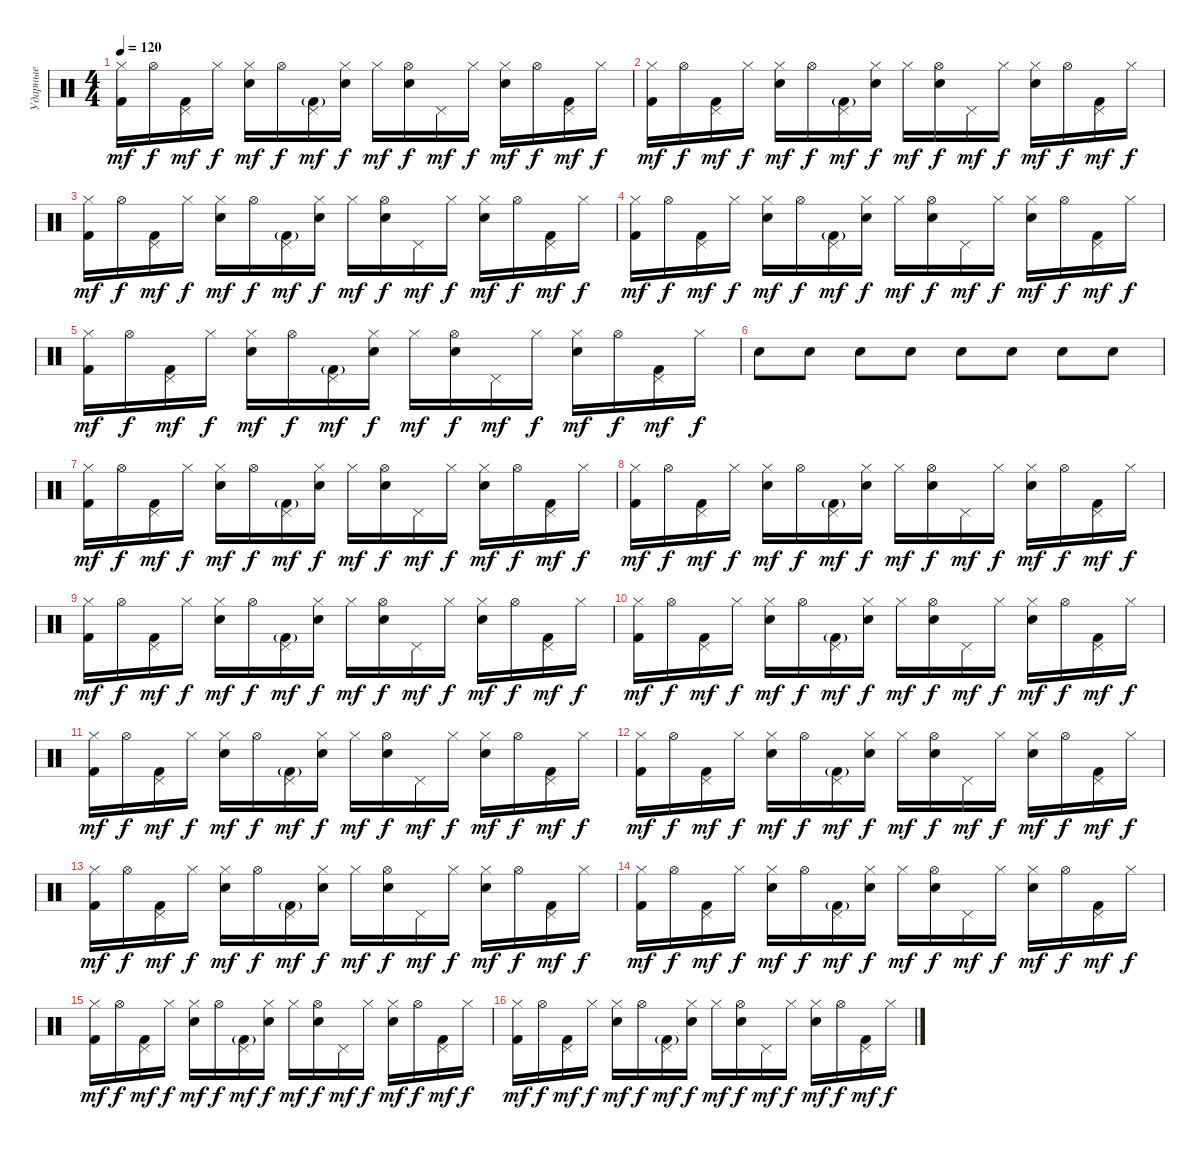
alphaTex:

\track ("Ударные" "Ударные") {instrument percussion}
\staff {score}
\articulation defaults
\ts (4 4)
\tempo 120
\clef neutral
\ks c
("Kick (hit) 2" "Hi-Hat (closed)").16{dy mf} "Hi-Hat (open)".16{dy f} ("Kick (hit) 2" "Pedal Hi-Hat (hit)").16{dy mf} "Hi-Hat (closed)".16{dy f} ("Snare (hit) 2" "Hi-Hat (closed)").16{dy mf} "Hi-Hat (open)".16{dy f} ("Kick (hit) 2"{g} "Pedal Hi-Hat (hit)").16{dy mf} ("Snare (hit) 2" "Hi-Hat (closed)").16{dy f} "Hi-Hat (closed)".16{dy mf} ("Snare (hit) 2" "Hi-Hat (open)").16{dy f} "Pedal Hi-Hat (hit)".16{dy mf} "Hi-Hat (closed)".16{dy f} ("Snare (hit) 2" "Hi-Hat (closed)").16{dy mf} "Hi-Hat (open)".16{dy f} ("Kick (hit) 2" "Pedal Hi-Hat (hit)").16{dy mf} "Hi-Hat (closed)".16{dy f} |
("Kick (hit) 2" "Hi-Hat (closed)").16{dy mf} "Hi-Hat (open)".16{dy f} ("Kick (hit) 2" "Pedal Hi-Hat (hit)").16{dy mf} "Hi-Hat (closed)".16{dy f} ("Snare (hit) 2" "Hi-Hat (closed)").16{dy mf} "Hi-Hat (open)".16{dy f} ("Kick (hit) 2"{g} "Pedal Hi-Hat (hit)").16{dy mf} ("Snare (hit) 2" "Hi-Hat (closed)").16{dy f} "Hi-Hat (closed)".16{dy mf} ("Snare (hit) 2" "Hi-Hat (open)").16{dy f} "Pedal Hi-Hat (hit)".16{dy mf} "Hi-Hat (closed)".16{dy f} ("Snare (hit) 2" "Hi-Hat (closed)").16{dy mf} "Hi-Hat (open)".16{dy f} ("Kick (hit) 2" "Pedal Hi-Hat (hit)").16{dy mf} "Hi-Hat (closed)".16{dy f} |
("Kick (hit) 2" "Hi-Hat (closed)").16{dy mf} "Hi-Hat (open)".16{dy f} ("Kick (hit) 2" "Pedal Hi-Hat (hit)").16{dy mf} "Hi-Hat (closed)".16{dy f} ("Snare (hit) 2" "Hi-Hat (closed)").16{dy mf} "Hi-Hat (open)".16{dy f} ("Kick (hit) 2"{g} "Pedal Hi-Hat (hit)").16{dy mf} ("Snare (hit) 2" "Hi-Hat (closed)").16{dy f} "Hi-Hat (closed)".16{dy mf} ("Snare (hit) 2" "Hi-Hat (open)").16{dy f} "Pedal Hi-Hat (hit)".16{dy mf} "Hi-Hat (closed)".16{dy f} ("Snare (hit) 2" "Hi-Hat (closed)").16{dy mf} "Hi-Hat (open)".16{dy f} ("Kick (hit) 2" "Pedal Hi-Hat (hit)").16{dy mf} "Hi-Hat (closed)".16{dy f} |
("Kick (hit) 2" "Hi-Hat (closed)").16{dy mf} "Hi-Hat (open)".16{dy f} ("Kick (hit) 2" "Pedal Hi-Hat (hit)").16{dy mf} "Hi-Hat (closed)".16{dy f} ("Snare (hit) 2" "Hi-Hat (closed)").16{dy mf} "Hi-Hat (open)".16{dy f} ("Kick (hit) 2"{g} "Pedal Hi-Hat (hit)").16{dy mf} ("Snare (hit) 2" "Hi-Hat (closed)").16{dy f} "Hi-Hat (closed)".16{dy mf} ("Snare (hit) 2" "Hi-Hat (open)").16{dy f} "Pedal Hi-Hat (hit)".16{dy mf} "Hi-Hat (closed)".16{dy f} ("Snare (hit) 2" "Hi-Hat (closed)").16{dy mf} "Hi-Hat (open)".16{dy f} ("Kick (hit) 2" "Pedal Hi-Hat (hit)").16{dy mf} "Hi-Hat (closed)".16{dy f} |
("Kick (hit) 2" "Hi-Hat (closed)").16{dy mf} "Hi-Hat (open)".16{dy f} ("Kick (hit) 2" "Pedal Hi-Hat (hit)").16{dy mf} "Hi-Hat (closed)".16{dy f} ("Snare (hit) 2" "Hi-Hat (closed)").16{dy mf} "Hi-Hat (open)".16{dy f} ("Kick (hit) 2"{g} "Pedal Hi-Hat (hit)").16{dy mf} ("Snare (hit) 2" "Hi-Hat (closed)").16{dy f} "Hi-Hat (closed)".16{dy mf} ("Snare (hit) 2" "Hi-Hat (open)").16{dy f} "Pedal Hi-Hat (hit)".16{dy mf} "Hi-Hat (closed)".16{dy f} ("Snare (hit) 2" "Hi-Hat (closed)").16{dy mf} "Hi-Hat (open)".16{dy f} ("Kick (hit) 2" "Pedal Hi-Hat (hit)").16{dy mf} "Hi-Hat (closed)".16{dy f} |
"Snare (hit) 2".8 "Snare (hit) 2".8 "Snare (hit) 2".8 "Snare (hit) 2".8 "Snare (hit) 2".8 "Snare (hit) 2".8 "Snare (hit) 2".8 "Snare (hit) 2".8 |
("Kick (hit) 2" "Hi-Hat (closed)").16{dy mf} "Hi-Hat (open)".16{dy f} ("Kick (hit) 2" "Pedal Hi-Hat (hit)").16{dy mf} "Hi-Hat (closed)".16{dy f} ("Snare (hit) 2" "Hi-Hat (closed)").16{dy mf} "Hi-Hat (open)".16{dy f} ("Kick (hit) 2"{g} "Pedal Hi-Hat (hit)").16{dy mf} ("Snare (hit) 2" "Hi-Hat (closed)").16{dy f} "Hi-Hat (closed)".16{dy mf} ("Snare (hit) 2" "Hi-Hat (open)").16{dy f} "Pedal Hi-Hat (hit)".16{dy mf} "Hi-Hat (closed)".16{dy f} ("Snare (hit) 2" "Hi-Hat (closed)").16{dy mf} "Hi-Hat (open)".16{dy f} ("Kick (hit) 2" "Pedal Hi-Hat (hit)").16{dy mf} "Hi-Hat (closed)".16{dy f} |
("Kick (hit) 2" "Hi-Hat (closed)").16{dy mf} "Hi-Hat (open)".16{dy f} ("Kick (hit) 2" "Pedal Hi-Hat (hit)").16{dy mf} "Hi-Hat (closed)".16{dy f} ("Snare (hit) 2" "Hi-Hat (closed)").16{dy mf} "Hi-Hat (open)".16{dy f} ("Kick (hit) 2"{g} "Pedal Hi-Hat (hit)").16{dy mf} ("Snare (hit) 2" "Hi-Hat (closed)").16{dy f} "Hi-Hat (closed)".16{dy mf} ("Snare (hit) 2" "Hi-Hat (open)").16{dy f} "Pedal Hi-Hat (hit)".16{dy mf} "Hi-Hat (closed)".16{dy f} ("Snare (hit) 2" "Hi-Hat (closed)").16{dy mf} "Hi-Hat (open)".16{dy f} ("Kick (hit) 2" "Pedal Hi-Hat (hit)").16{dy mf} "Hi-Hat (closed)".16{dy f} |
("Kick (hit) 2" "Hi-Hat (closed)").16{dy mf} "Hi-Hat (open)".16{dy f} ("Kick (hit) 2" "Pedal Hi-Hat (hit)").16{dy mf} "Hi-Hat (closed)".16{dy f} ("Snare (hit) 2" "Hi-Hat (closed)").16{dy mf} "Hi-Hat (open)".16{dy f} ("Kick (hit) 2"{g} "Pedal Hi-Hat (hit)").16{dy mf} ("Snare (hit) 2" "Hi-Hat (closed)").16{dy f} "Hi-Hat (closed)".16{dy mf} ("Snare (hit) 2" "Hi-Hat (open)").16{dy f} "Pedal Hi-Hat (hit)".16{dy mf} "Hi-Hat (closed)".16{dy f} ("Snare (hit) 2" "Hi-Hat (closed)").16{dy mf} "Hi-Hat (open)".16{dy f} ("Kick (hit) 2" "Pedal Hi-Hat (hit)").16{dy mf} "Hi-Hat (closed)".16{dy f} |
("Kick (hit) 2" "Hi-Hat (closed)").16{dy mf} "Hi-Hat (open)".16{dy f} ("Kick (hit) 2" "Pedal Hi-Hat (hit)").16{dy mf} "Hi-Hat (closed)".16{dy f} ("Snare (hit) 2" "Hi-Hat (closed)").16{dy mf} "Hi-Hat (open)".16{dy f} ("Kick (hit) 2"{g} "Pedal Hi-Hat (hit)").16{dy mf} ("Snare (hit) 2" "Hi-Hat (closed)").16{dy f} "Hi-Hat (closed)".16{dy mf} ("Snare (hit) 2" "Hi-Hat (open)").16{dy f} "Pedal Hi-Hat (hit)".16{dy mf} "Hi-Hat (closed)".16{dy f} ("Snare (hit) 2" "Hi-Hat (closed)").16{dy mf} "Hi-Hat (open)".16{dy f} ("Kick (hit) 2" "Pedal Hi-Hat (hit)").16{dy mf} "Hi-Hat (closed)".16{dy f} |
("Kick (hit) 2" "Hi-Hat (closed)").16{dy mf} "Hi-Hat (open)".16{dy f} ("Kick (hit) 2" "Pedal Hi-Hat (hit)").16{dy mf} "Hi-Hat (closed)".16{dy f} ("Snare (hit) 2" "Hi-Hat (closed)").16{dy mf} "Hi-Hat (open)".16{dy f} ("Kick (hit) 2"{g} "Pedal Hi-Hat (hit)").16{dy mf} ("Snare (hit) 2" "Hi-Hat (closed)").16{dy f} "Hi-Hat (closed)".16{dy mf} ("Snare (hit) 2" "Hi-Hat (open)").16{dy f} "Pedal Hi-Hat (hit)".16{dy mf} "Hi-Hat (closed)".16{dy f} ("Snare (hit) 2" "Hi-Hat (closed)").16{dy mf} "Hi-Hat (open)".16{dy f} ("Kick (hit) 2" "Pedal Hi-Hat (hit)").16{dy mf} "Hi-Hat (closed)".16{dy f} |
("Kick (hit) 2" "Hi-Hat (closed)").16{dy mf} "Hi-Hat (open)".16{dy f} ("Kick (hit) 2" "Pedal Hi-Hat (hit)").16{dy mf} "Hi-Hat (closed)".16{dy f} ("Snare (hit) 2" "Hi-Hat (closed)").16{dy mf} "Hi-Hat (open)".16{dy f} ("Kick (hit) 2"{g} "Pedal Hi-Hat (hit)").16{dy mf} ("Snare (hit) 2" "Hi-Hat (closed)").16{dy f} "Hi-Hat (closed)".16{dy mf} ("Snare (hit) 2" "Hi-Hat (open)").16{dy f} "Pedal Hi-Hat (hit)".16{dy mf} "Hi-Hat (closed)".16{dy f} ("Snare (hit) 2" "Hi-Hat (closed)").16{dy mf} "Hi-Hat (open)".16{dy f} ("Kick (hit) 2" "Pedal Hi-Hat (hit)").16{dy mf} "Hi-Hat (closed)".16{dy f} |
("Kick (hit) 2" "Hi-Hat (closed)").16{dy mf} "Hi-Hat (open)".16{dy f} ("Kick (hit) 2" "Pedal Hi-Hat (hit)").16{dy mf} "Hi-Hat (closed)".16{dy f} ("Snare (hit) 2" "Hi-Hat (closed)").16{dy mf} "Hi-Hat (open)".16{dy f} ("Kick (hit) 2"{g} "Pedal Hi-Hat (hit)").16{dy mf} ("Snare (hit) 2" "Hi-Hat (closed)").16{dy f} "Hi-Hat (closed)".16{dy mf} ("Snare (hit) 2" "Hi-Hat (open)").16{dy f} "Pedal Hi-Hat (hit)".16{dy mf} "Hi-Hat (closed)".16{dy f} ("Snare (hit) 2" "Hi-Hat (closed)").16{dy mf} "Hi-Hat (open)".16{dy f} ("Kick (hit) 2" "Pedal Hi-Hat (hit)").16{dy mf} "Hi-Hat (closed)".16{dy f} |
("Kick (hit) 2" "Hi-Hat (closed)").16{dy mf} "Hi-Hat (open)".16{dy f} ("Kick (hit) 2" "Pedal Hi-Hat (hit)").16{dy mf} "Hi-Hat (closed)".16{dy f} ("Snare (hit) 2" "Hi-Hat (closed)").16{dy mf} "Hi-Hat (open)".16{dy f} ("Kick (hit) 2"{g} "Pedal Hi-Hat (hit)").16{dy mf} ("Snare (hit) 2" "Hi-Hat (closed)").16{dy f} "Hi-Hat (closed)".16{dy mf} ("Snare (hit) 2" "Hi-Hat (open)").16{dy f} "Pedal Hi-Hat (hit)".16{dy mf} "Hi-Hat (closed)".16{dy f} ("Snare (hit) 2" "Hi-Hat (closed)").16{dy mf} "Hi-Hat (open)".16{dy f} ("Kick (hit) 2" "Pedal Hi-Hat (hit)").16{dy mf} "Hi-Hat (closed)".16{dy f} |
("Kick (hit) 2" "Hi-Hat (closed)").16{dy mf} "Hi-Hat (open)".16{dy f} ("Kick (hit) 2" "Pedal Hi-Hat (hit)").16{dy mf} "Hi-Hat (closed)".16{dy f} ("Snare (hit) 2" "Hi-Hat (closed)").16{dy mf} "Hi-Hat (open)".16{dy f} ("Kick (hit) 2"{g} "Pedal Hi-Hat (hit)").16{dy mf} ("Snare (hit) 2" "Hi-Hat (closed)").16{dy f} "Hi-Hat (closed)".16{dy mf} ("Snare (hit) 2" "Hi-Hat (open)").16{dy f} "Pedal Hi-Hat (hit)".16{dy mf} "Hi-Hat (closed)".16{dy f} ("Snare (hit) 2" "Hi-Hat (closed)").16{dy mf} "Hi-Hat (open)".16{dy f} ("Kick (hit) 2" "Pedal Hi-Hat (hit)").16{dy mf} "Hi-Hat (closed)".16{dy f} |
("Kick (hit) 2" "Hi-Hat (closed)").16{dy mf} "Hi-Hat (open)".16{dy f} ("Kick (hit) 2" "Pedal Hi-Hat (hit)").16{dy mf} "Hi-Hat (closed)".16{dy f} ("Snare (hit) 2" "Hi-Hat (closed)").16{dy mf} "Hi-Hat (open)".16{dy f} ("Kick (hit) 2"{g} "Pedal Hi-Hat (hit)").16{dy mf} ("Snare (hit) 2" "Hi-Hat (closed)").16{dy f} "Hi-Hat (closed)".16{dy mf} ("Snare (hit) 2" "Hi-Hat (open)").16{dy f} "Pedal Hi-Hat (hit)".16{dy mf} "Hi-Hat (closed)".16{dy f} ("Snare (hit) 2" "Hi-Hat (closed)").16{dy mf} "Hi-Hat (open)".16{dy f} ("Kick (hit) 2" "Pedal Hi-Hat (hit)").16{dy mf} "Hi-Hat (closed)".16{dy f}
